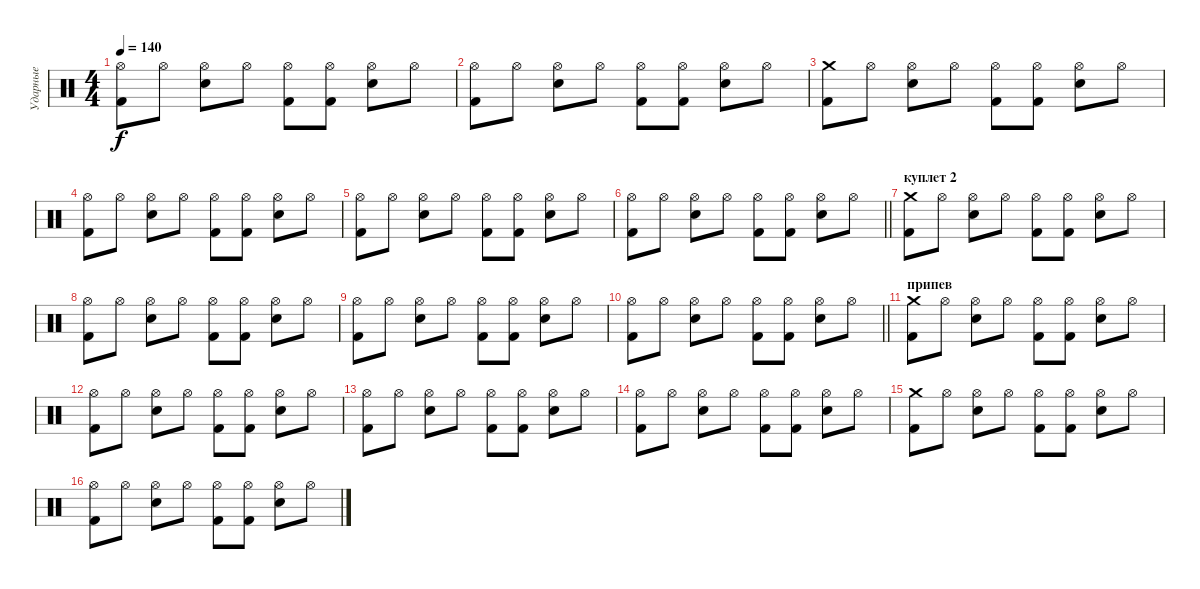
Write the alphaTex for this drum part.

\track ("Ударные" "Ударные") {instrument percussion}
\staff {score}
\articulation defaults
\ts (4 4)
\tempo 140
\clef neutral
\ks c
("Hi-Hat (open)" "Kick (hit) 2").8{dy f} "Hi-Hat (open)".8 ("Hi-Hat (open)" "Electric Snare (hit)").8 "Hi-Hat (open)".8 ("Hi-Hat (open)" "Kick (hit) 2").8 ("Hi-Hat (open)" "Kick (hit) 2").8 ("Hi-Hat (open)" "Electric Snare (hit)").8 "Hi-Hat (open)".8 |
("Hi-Hat (open)" "Kick (hit) 2").8 "Hi-Hat (open)".8 ("Hi-Hat (open)" "Electric Snare (hit)").8 "Hi-Hat (open)".8 ("Hi-Hat (open)" "Kick (hit) 2").8 ("Hi-Hat (open)" "Kick (hit) 2").8 ("Hi-Hat (open)" "Electric Snare (hit)").8 "Hi-Hat (open)".8 |
("Crash medium (hit)" "Kick (hit) 2").8 "Hi-Hat (open)".8 ("Hi-Hat (open)" "Electric Snare (hit)").8 "Hi-Hat (open)".8 ("Hi-Hat (open)" "Kick (hit) 2").8 ("Hi-Hat (open)" "Kick (hit) 2").8 ("Hi-Hat (open)" "Electric Snare (hit)").8 "Hi-Hat (open)".8 |
("Hi-Hat (open)" "Kick (hit) 2").8 "Hi-Hat (open)".8 ("Hi-Hat (open)" "Electric Snare (hit)").8 "Hi-Hat (open)".8 ("Hi-Hat (open)" "Kick (hit) 2").8 ("Hi-Hat (open)" "Kick (hit) 2").8 ("Hi-Hat (open)" "Electric Snare (hit)").8 "Hi-Hat (open)".8 |
("Hi-Hat (open)" "Kick (hit) 2").8 "Hi-Hat (open)".8 ("Hi-Hat (open)" "Electric Snare (hit)").8 "Hi-Hat (open)".8 ("Hi-Hat (open)" "Kick (hit) 2").8 ("Hi-Hat (open)" "Kick (hit) 2").8 ("Hi-Hat (open)" "Electric Snare (hit)").8 "Hi-Hat (open)".8 |
\barLineRight lightlight
("Hi-Hat (open)" "Kick (hit) 2").8 "Hi-Hat (open)".8 ("Hi-Hat (open)" "Electric Snare (hit)").8 "Hi-Hat (open)".8 ("Hi-Hat (open)" "Kick (hit) 2").8 ("Hi-Hat (open)" "Kick (hit) 2").8 ("Hi-Hat (open)" "Electric Snare (hit)").8 "Hi-Hat (open)".8 |
\section ("" "куплет 2")
("Crash medium (hit)" "Kick (hit) 2").8 "Hi-Hat (open)".8 ("Hi-Hat (open)" "Electric Snare (hit)").8 "Hi-Hat (open)".8 ("Hi-Hat (open)" "Kick (hit) 2").8 ("Hi-Hat (open)" "Kick (hit) 2").8 ("Hi-Hat (open)" "Electric Snare (hit)").8 "Hi-Hat (open)".8 |
("Hi-Hat (open)" "Kick (hit) 2").8 "Hi-Hat (open)".8 ("Hi-Hat (open)" "Electric Snare (hit)").8 "Hi-Hat (open)".8 ("Hi-Hat (open)" "Kick (hit) 2").8 ("Hi-Hat (open)" "Kick (hit) 2").8 ("Hi-Hat (open)" "Electric Snare (hit)").8 "Hi-Hat (open)".8 |
("Hi-Hat (open)" "Kick (hit) 2").8 "Hi-Hat (open)".8 ("Hi-Hat (open)" "Electric Snare (hit)").8 "Hi-Hat (open)".8 ("Hi-Hat (open)" "Kick (hit) 2").8 ("Hi-Hat (open)" "Kick (hit) 2").8 ("Hi-Hat (open)" "Electric Snare (hit)").8 "Hi-Hat (open)".8 |
\barLineRight lightlight
("Hi-Hat (open)" "Kick (hit) 2").8 "Hi-Hat (open)".8 ("Hi-Hat (open)" "Electric Snare (hit)").8 "Hi-Hat (open)".8 ("Hi-Hat (open)" "Kick (hit) 2").8 ("Hi-Hat (open)" "Kick (hit) 2").8 ("Hi-Hat (open)" "Electric Snare (hit)").8 "Hi-Hat (open)".8 |
\section ("" "припев")
("Crash medium (hit)" "Kick (hit) 2").8 "Hi-Hat (open)".8 ("Hi-Hat (open)" "Electric Snare (hit)").8 "Hi-Hat (open)".8 ("Hi-Hat (open)" "Kick (hit) 2").8 ("Hi-Hat (open)" "Kick (hit) 2").8 ("Hi-Hat (open)" "Electric Snare (hit)").8 "Hi-Hat (open)".8 |
("Hi-Hat (open)" "Kick (hit) 2").8 "Hi-Hat (open)".8 ("Hi-Hat (open)" "Electric Snare (hit)").8 "Hi-Hat (open)".8 ("Hi-Hat (open)" "Kick (hit) 2").8 ("Hi-Hat (open)" "Kick (hit) 2").8 ("Hi-Hat (open)" "Electric Snare (hit)").8 "Hi-Hat (open)".8 |
("Hi-Hat (open)" "Kick (hit) 2").8 "Hi-Hat (open)".8 ("Hi-Hat (open)" "Electric Snare (hit)").8 "Hi-Hat (open)".8 ("Hi-Hat (open)" "Kick (hit) 2").8 ("Hi-Hat (open)" "Kick (hit) 2").8 ("Hi-Hat (open)" "Electric Snare (hit)").8 "Hi-Hat (open)".8 |
("Hi-Hat (open)" "Kick (hit) 2").8 "Hi-Hat (open)".8 ("Hi-Hat (open)" "Electric Snare (hit)").8 "Hi-Hat (open)".8 ("Hi-Hat (open)" "Kick (hit) 2").8 ("Hi-Hat (open)" "Kick (hit) 2").8 ("Hi-Hat (open)" "Electric Snare (hit)").8 "Hi-Hat (open)".8 |
("Crash medium (hit)" "Kick (hit) 2").8 "Hi-Hat (open)".8 ("Hi-Hat (open)" "Electric Snare (hit)").8 "Hi-Hat (open)".8 ("Hi-Hat (open)" "Kick (hit) 2").8 ("Hi-Hat (open)" "Kick (hit) 2").8 ("Hi-Hat (open)" "Electric Snare (hit)").8 "Hi-Hat (open)".8 |
("Hi-Hat (open)" "Kick (hit) 2").8 "Hi-Hat (open)".8 ("Hi-Hat (open)" "Electric Snare (hit)").8 "Hi-Hat (open)".8 ("Hi-Hat (open)" "Kick (hit) 2").8 ("Hi-Hat (open)" "Kick (hit) 2").8 ("Hi-Hat (open)" "Electric Snare (hit)").8 "Hi-Hat (open)".8
